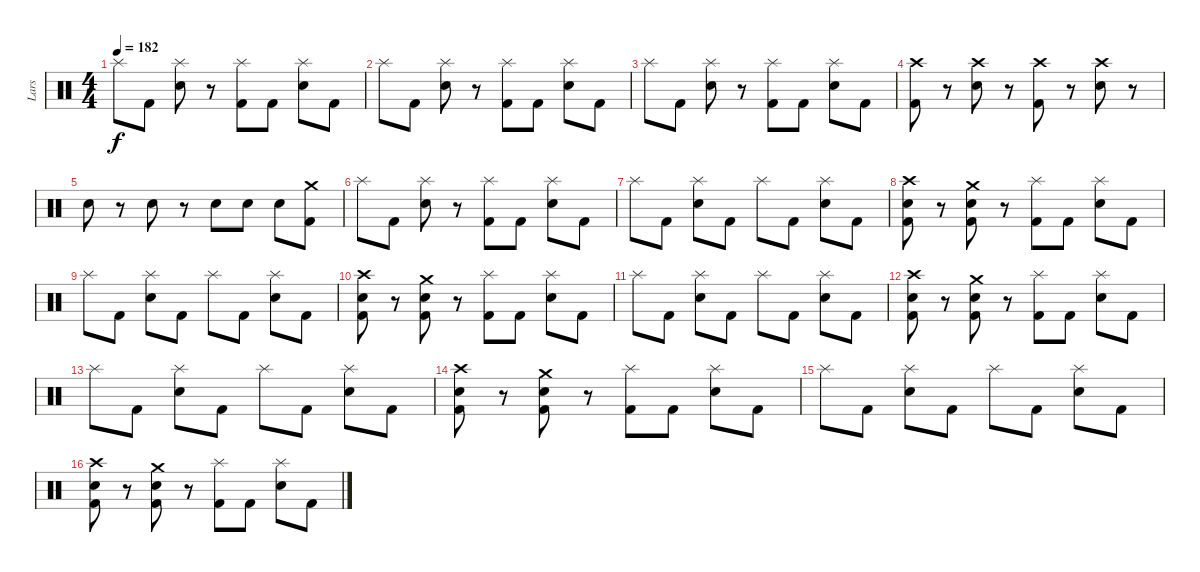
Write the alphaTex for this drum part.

\track ("Lars" "Lars") {instrument percussion}
\staff {score}
\articulation defaults
\ts (4 4)
\tempo 182
\clef neutral
\ks c "Splash (hit)".8{dy f} "Kick (hit) 2".8
("Splash (hit)" "Snare (hit) 2").8 r.8 ("Splash (hit)" "Kick (hit) 2").8 "Kick (hit) 2".8 ("Splash (hit)" "Snare (hit) 2").8 "Kick (hit) 2".8 |
"Splash (hit)".8 "Kick (hit) 2".8 ("Splash (hit)" "Snare (hit) 2").8 r.8 ("Splash (hit)" "Kick (hit) 2").8 "Kick (hit) 2".8 ("Splash (hit)" "Snare (hit) 2").8 "Kick (hit) 2".8 |
"Splash (hit)".8 "Kick (hit) 2".8 ("Splash (hit)" "Snare (hit) 2").8 r.8 ("Splash (hit)" "Kick (hit) 2").8 "Kick (hit) 2".8 ("Splash (hit)" "Snare (hit) 2").8 "Kick (hit) 2".8 |
("Crash high (hit)" "Kick (hit) 2").8 r.8 ("Crash high (hit)" "Snare (hit) 2").8 r.8 ("Crash high (hit)" "Kick (hit) 2").8 r.8 ("Crash high (hit)" "Snare (hit) 2").8 r.8 |
"Snare (hit) 2".8 r.8 "Snare (hit) 2".8 r.8 "Snare (hit) 2".8 "Snare (hit) 2".8 "Snare (hit) 2".8 ("Crash medium (hit)" "Kick (hit) 2").8 |
"Splash (hit)".8 "Kick (hit) 2".8 ("Splash (hit)" "Snare (hit) 2").8 r.8 ("Splash (hit)" "Kick (hit) 2").8 "Kick (hit) 2".8 ("Splash (hit)" "Snare (hit) 2").8 "Kick (hit) 2".8 |
"Splash (hit)".8 "Kick (hit) 2".8 ("Splash (hit)" "Snare (hit) 2").8 "Kick (hit) 2".8 "Splash (hit)".8 "Kick (hit) 2".8 ("Splash (hit)" "Snare (hit) 2").8 "Kick (hit) 2".8 |
("Crash high (hit)" "Snare (hit) 2" "Kick (hit) 2").8 r.8 ("Crash medium (hit)" "Snare (hit) 2" "Kick (hit) 2").8 r.8 ("Splash (hit)" "Kick (hit) 2").8 "Kick (hit) 2".8 ("Splash (hit)" "Snare (hit) 2").8 "Kick (hit) 2".8 |
"Splash (hit)".8 "Kick (hit) 2".8 ("Splash (hit)" "Snare (hit) 2").8 "Kick (hit) 2".8 "Splash (hit)".8 "Kick (hit) 2".8 ("Splash (hit)" "Snare (hit) 2").8 "Kick (hit) 2".8 |
("Crash high (hit)" "Snare (hit) 2" "Kick (hit) 2").8 r.8 ("Crash medium (hit)" "Snare (hit) 2" "Kick (hit) 2").8 r.8 ("Splash (hit)" "Kick (hit) 2").8 "Kick (hit) 2".8 ("Splash (hit)" "Snare (hit) 2").8 "Kick (hit) 2".8 |
"Splash (hit)".8 "Kick (hit) 2".8 ("Splash (hit)" "Snare (hit) 2").8 "Kick (hit) 2".8 "Splash (hit)".8 "Kick (hit) 2".8 ("Splash (hit)" "Snare (hit) 2").8 "Kick (hit) 2".8 |
("Crash high (hit)" "Snare (hit) 2" "Kick (hit) 2").8 r.8 ("Crash medium (hit)" "Snare (hit) 2" "Kick (hit) 2").8 r.8 ("Splash (hit)" "Kick (hit) 2").8 "Kick (hit) 2".8 ("Splash (hit)" "Snare (hit) 2").8 "Kick (hit) 2".8 |
"Splash (hit)".8 "Kick (hit) 2".8 ("Splash (hit)" "Snare (hit) 2").8 "Kick (hit) 2".8 "Splash (hit)".8 "Kick (hit) 2".8 ("Splash (hit)" "Snare (hit) 2").8 "Kick (hit) 2".8 |
("Crash high (hit)" "Snare (hit) 2" "Kick (hit) 2").8 r.8 ("Crash medium (hit)" "Snare (hit) 2" "Kick (hit) 2").8 r.8 ("Splash (hit)" "Kick (hit) 2").8 "Kick (hit) 2".8 ("Splash (hit)" "Snare (hit) 2").8 "Kick (hit) 2".8 |
"Splash (hit)".8 "Kick (hit) 2".8 ("Splash (hit)" "Snare (hit) 2").8 "Kick (hit) 2".8 "Splash (hit)".8 "Kick (hit) 2".8 ("Splash (hit)" "Snare (hit) 2").8 "Kick (hit) 2".8 |
("Crash high (hit)" "Snare (hit) 2" "Kick (hit) 2").8 r.8 ("Crash medium (hit)" "Snare (hit) 2" "Kick (hit) 2").8 r.8 ("Splash (hit)" "Kick (hit) 2").8 "Kick (hit) 2".8 ("Splash (hit)" "Snare (hit) 2").8 "Kick (hit) 2".8
